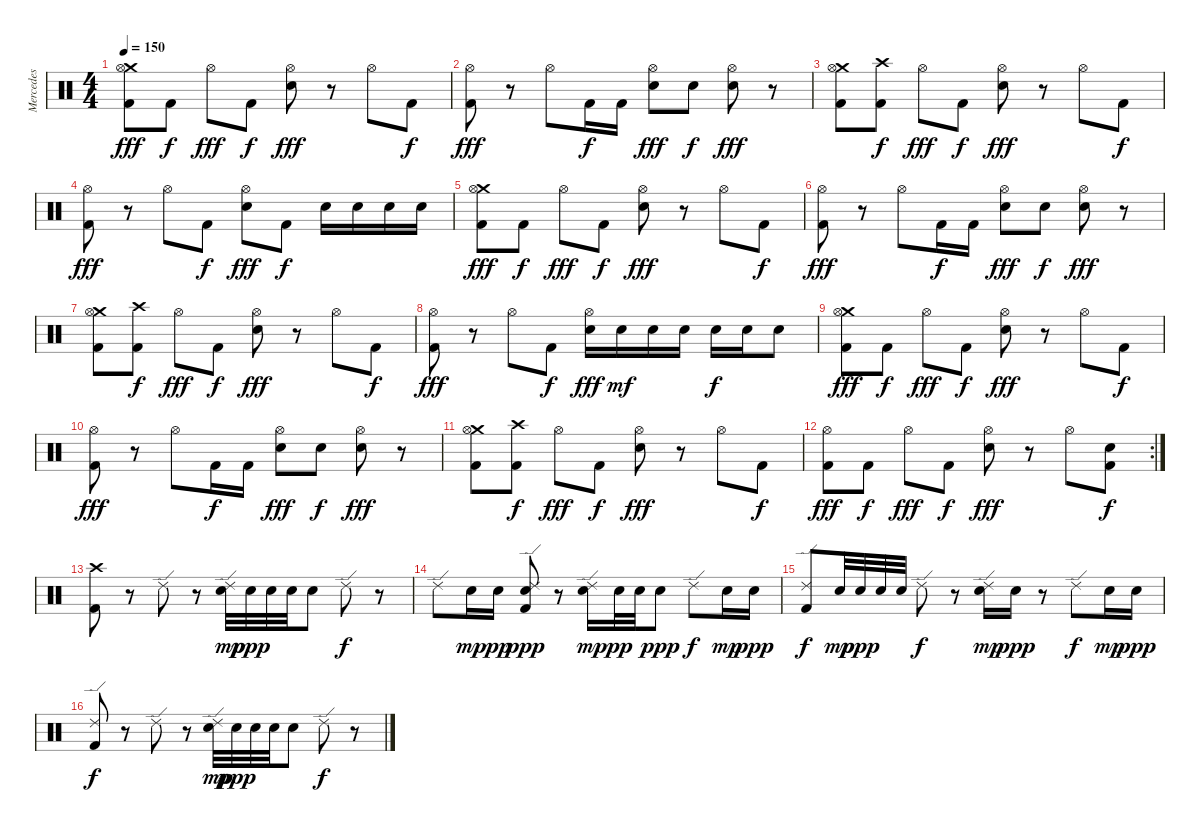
\track ("Mercedes" "Mercedes") {instrument percussion}
\staff {score}
\articulation defaults
\ts (4 4)
\tempo 150
\clef neutral
\ks c
("Crash medium (hit)" "Hi-Hat (open)" "Kick (hit) 2").8{dy fff} "Kick (hit) 2".8{dy f} "Hi-Hat (open)".8{dy fff} "Kick (hit) 2".8{dy f} ("Hi-Hat (open)" "Electric Snare (hit)").8{dy fff} r.8 "Hi-Hat (open)".8 "Kick (hit) 2".8{dy f} |
("Hi-Hat (open)" "Kick (hit) 2").8{dy fff} r.8 "Hi-Hat (open)".8 "Kick (hit) 2".16{dy f} "Kick (hit) 2".16 ("Hi-Hat (open)" "Electric Snare (hit)").8{dy fff} "Electric Snare (hit)".8{dy f} ("Hi-Hat (open)" "Electric Snare (hit)").8{dy fff} r.8 |
("Crash medium (hit)" "Hi-Hat (open)" "Kick (hit) 2").8 ("Crash high (hit)" "Kick (hit) 2").8{dy f} "Hi-Hat (open)".8{dy fff} "Kick (hit) 2".8{dy f} ("Hi-Hat (open)" "Electric Snare (hit)").8{dy fff} r.8 "Hi-Hat (open)".8 "Kick (hit) 2".8{dy f} |
("Hi-Hat (open)" "Kick (hit) 2").8{dy fff} r.8 "Hi-Hat (open)".8 "Kick (hit) 2".8{dy f} ("Hi-Hat (open)" "Electric Snare (hit)").8{dy fff} "Kick (hit) 2".8{dy f} "Electric Snare (hit)".16 "Electric Snare (hit)".16 "Electric Snare (hit)".16 "Electric Snare (hit)".16 |
("Crash medium (hit)" "Hi-Hat (open)" "Kick (hit) 2").8{dy fff} "Kick (hit) 2".8{dy f} "Hi-Hat (open)".8{dy fff} "Kick (hit) 2".8{dy f} ("Hi-Hat (open)" "Electric Snare (hit)").8{dy fff} r.8 "Hi-Hat (open)".8 "Kick (hit) 2".8{dy f} |
("Hi-Hat (open)" "Kick (hit) 2").8{dy fff} r.8 "Hi-Hat (open)".8 "Kick (hit) 2".16{dy f} "Kick (hit) 2".16 ("Hi-Hat (open)" "Electric Snare (hit)").8{dy fff} "Electric Snare (hit)".8{dy f} ("Hi-Hat (open)" "Electric Snare (hit)").8{dy fff} r.8 |
("Crash medium (hit)" "Hi-Hat (open)" "Kick (hit) 2").8 ("Crash high (hit)" "Kick (hit) 2").8{dy f} "Hi-Hat (open)".8{dy fff} "Kick (hit) 2".8{dy f} ("Hi-Hat (open)" "Electric Snare (hit)").8{dy fff} r.8 "Hi-Hat (open)".8 "Kick (hit) 2".8{dy f} |
("Hi-Hat (open)" "Kick (hit) 2").8{dy fff} r.8 "Hi-Hat (open)".8 "Kick (hit) 2".8{dy f} ("Hi-Hat (open)" "Electric Snare (hit)").16{dy fff} "Electric Snare (hit)".16{dy mf} "Electric Snare (hit)".16 "Electric Snare (hit)".16 "Electric Snare (hit)".16{dy f} "Electric Snare (hit)".16 "Electric Snare (hit)".8 |
("Crash medium (hit)" "Hi-Hat (open)" "Kick (hit) 2").8{dy fff} "Kick (hit) 2".8{dy f} "Hi-Hat (open)".8{dy fff} "Kick (hit) 2".8{dy f} ("Hi-Hat (open)" "Electric Snare (hit)").8{dy fff} r.8 "Hi-Hat (open)".8 "Kick (hit) 2".8{dy f} |
("Hi-Hat (open)" "Kick (hit) 2").8{dy fff} r.8 "Hi-Hat (open)".8 "Kick (hit) 2".16{dy f} "Kick (hit) 2".16 ("Hi-Hat (open)" "Electric Snare (hit)").8{dy fff} "Electric Snare (hit)".8{dy f} ("Hi-Hat (open)" "Electric Snare (hit)").8{dy fff} r.8 |
("Crash medium (hit)" "Hi-Hat (open)" "Kick (hit) 2").8 ("Crash high (hit)" "Kick (hit) 2").8{dy f} "Hi-Hat (open)".8{dy fff} "Kick (hit) 2".8{dy f} ("Hi-Hat (open)" "Electric Snare (hit)").8{dy fff} r.8 "Hi-Hat (open)".8 "Kick (hit) 2".8{dy f} |
\rc 2
("Hi-Hat (open)" "Kick (hit) 2").8{dy fff} "Kick (hit) 2".8{dy f} "Hi-Hat (open)".8{dy fff} "Kick (hit) 2".8{dy f} ("Hi-Hat (open)" "Electric Snare (hit)").8{dy fff} r.8 "Hi-Hat (open)".8 ("Electric Snare (hit)" "Kick (hit) 2").8{dy f} |
("Crash high (hit)" "Kick (hit) 2").8 r.8 "Ride (edge) 2".8 r.8 ("Ride (edge) 2" "Snare (hit) 2").32{dy mp} "Snare (hit) 2".32{dy ppp} "Snare (hit) 2".32 "Snare (hit) 2".32 "Snare (hit) 2".8 "Ride (edge) 2".8{dy f} r.8 |
"Ride (edge) 2".8 "Snare (hit) 2".16{dy mp} "Snare (hit) 2".16{dy pp} ("Ride (edge) 2" "Snare (hit) 2" "Kick (hit) 2").8{dy ppp} r.8 ("Ride (edge) 2" "Snare (hit) 2").16{dy mp} "Snare (hit) 2".32{dy pp} "Snare (hit) 2".32 "Snare (hit) 2".8{dy ppp} "Ride (edge) 2".8{dy f} "Snare (hit) 2".16{dy mp} "Snare (hit) 2".16{dy ppp} |
("Ride (edge) 2" "Kick (hit) 2").8{dy f} "Snare (hit) 2".32{dy mp} "Snare (hit) 2".32{dy ppp} "Snare (hit) 2".32 "Snare (hit) 2".32 "Ride (edge) 2".8{dy f} r.8 ("Ride (edge) 2" "Snare (hit) 2").16{dy mp} "Snare (hit) 2".16{dy ppp} r.8 "Ride (edge) 2".8{dy f} "Snare (hit) 2".16{dy mp} "Snare (hit) 2".16{dy ppp} |
("Ride (edge) 2" "Kick (hit) 2").8{dy f} r.8 "Ride (edge) 2".8 r.8 ("Ride (edge) 2" "Snare (hit) 2").32{dy mp} "Snare (hit) 2".32{dy ppp} "Snare (hit) 2".32 "Snare (hit) 2".32 "Snare (hit) 2".8 "Ride (edge) 2".8{dy f} r.8
